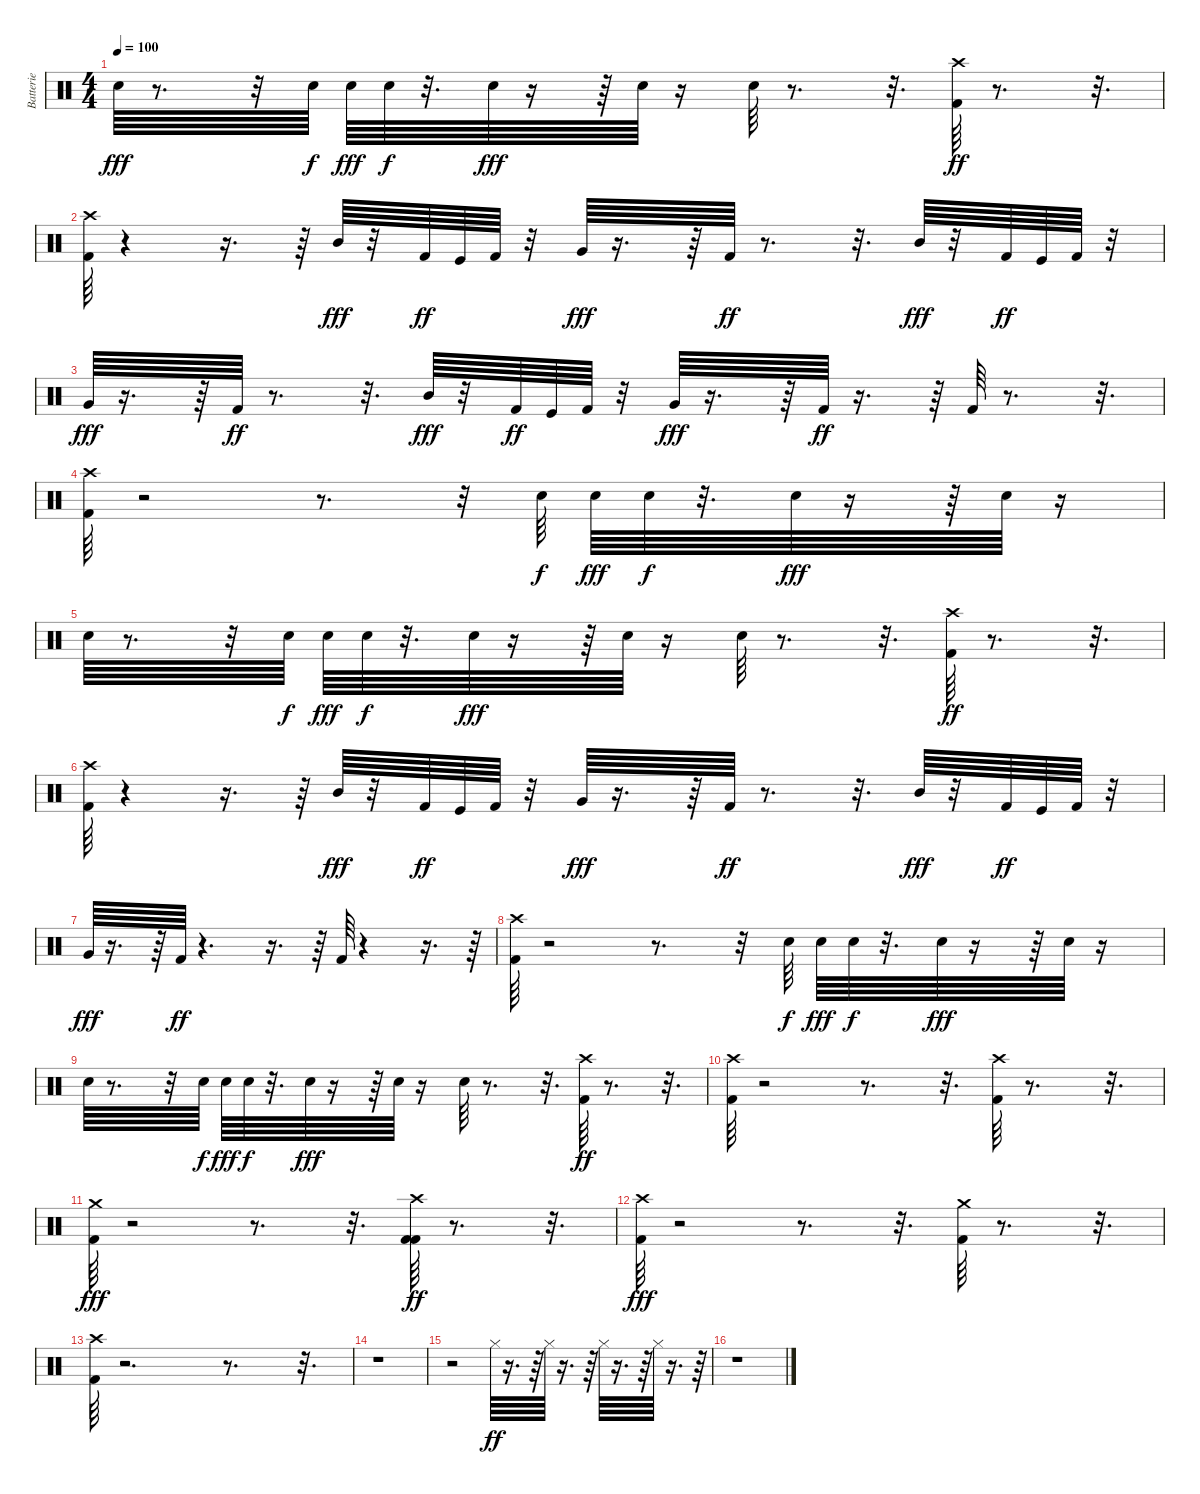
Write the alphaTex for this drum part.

\track ("Batterie" "Batterie") {instrument percussion}
\staff {score}
\articulation defaults
\ts (4 4)
\tempo 100
\clef neutral
\ks c "Snare (hit) 2".64{dy fff}
r.8{d} r.32 "Snare (hit) 2".64{dy f} "Snare (hit) 2".64{dy fff} "Snare (hit) 2".64{dy f} r.32{d} "Snare (hit) 2".64{dy fff} r.16 r.64 "Snare (hit) 2".64 r.16 "Snare (hit) 2".64 r.8{d} r.32{d} ("Crash high (hit)" "Kick (hit) 2").64{dy ff} r.8{d} r.32{d} |
("Crash high (hit)" "Kick (hit) 2").64 r.4 r.16{d} r.64 "Mid Tom (hit)".64{dy fff} r.32 "Kick (hit) 2".64{dy ff} "Kick (hit)".64 "Kick (hit) 2".64 r.32 "Very Low Tom (hit)".64{dy fff} r.16{d} r.64 "Kick (hit) 2".64{dy ff} r.8{d} r.32{d} "Mid Tom (hit)".64{dy fff} r.32 "Kick (hit) 2".64{dy ff} "Kick (hit)".64 "Kick (hit) 2".64 r.32 |
"Very Low Tom (hit)".64{dy fff} r.16{d} r.64 "Kick (hit) 2".64{dy ff} r.8{d} r.32{d} "Mid Tom (hit)".64{dy fff} r.32 "Kick (hit) 2".64{dy ff} "Kick (hit)".64 "Kick (hit) 2".64 r.32 "Very Low Tom (hit)".64{dy fff} r.16{d} r.64 "Kick (hit) 2".64{dy ff} r.16{d} r.64 "Kick (hit) 2".64 r.8{d} r.32{d} |
("Crash high (hit)" "Kick (hit) 2").64 r.2 r.8{d} r.32 "Snare (hit) 2".64{dy f} "Snare (hit) 2".64{dy fff} "Snare (hit) 2".64{dy f} r.32{d} "Snare (hit) 2".64{dy fff} r.16 r.64 "Snare (hit) 2".64 r.16 |
"Snare (hit) 2".64 r.8{d} r.32 "Snare (hit) 2".64{dy f} "Snare (hit) 2".64{dy fff} "Snare (hit) 2".64{dy f} r.32{d} "Snare (hit) 2".64{dy fff} r.16 r.64 "Snare (hit) 2".64 r.16 "Snare (hit) 2".64 r.8{d} r.32{d} ("Crash high (hit)" "Kick (hit) 2").64{dy ff} r.8{d} r.32{d} |
("Crash high (hit)" "Kick (hit) 2").64 r.4 r.16{d} r.64 "Mid Tom (hit)".64{dy fff} r.32 "Kick (hit) 2".64{dy ff} "Kick (hit)".64 "Kick (hit) 2".64 r.32 "Very Low Tom (hit)".64{dy fff} r.16{d} r.64 "Kick (hit) 2".64{dy ff} r.8{d} r.32{d} "Mid Tom (hit)".64{dy fff} r.32 "Kick (hit) 2".64{dy ff} "Kick (hit)".64 "Kick (hit) 2".64 r.32 |
"Very Low Tom (hit)".64{dy fff} r.16{d} r.64 "Kick (hit) 2".64{dy ff} r.4{d} r.16{d} r.64 "Kick (hit) 2".64 r.4 r.16{d} r.64 |
("Crash high (hit)" "Kick (hit) 2").64 r.2 r.8{d} r.32 "Snare (hit) 2".64{dy f} "Snare (hit) 2".64{dy fff} "Snare (hit) 2".64{dy f} r.32{d} "Snare (hit) 2".64{dy fff} r.16 r.64 "Snare (hit) 2".64 r.16 |
"Snare (hit) 2".64 r.8{d} r.32 "Snare (hit) 2".64{dy f} "Snare (hit) 2".64{dy fff} "Snare (hit) 2".64{dy f} r.32{d} "Snare (hit) 2".64{dy fff} r.16 r.64 "Snare (hit) 2".64 r.16 "Snare (hit) 2".64 r.8{d} r.32{d} ("Crash high (hit)" "Kick (hit) 2").64{dy ff} r.8{d} r.32{d} |
("Crash high (hit)" "Kick (hit) 2").64 r.2 r.8{d} r.32{d} ("Crash high (hit)" "Kick (hit) 2").64 r.8{d} r.32{d} |
("Kick (hit) 2" "Crash medium (hit)").64{dy fff} r.2 r.8{d} r.32{d} ("Kick (hit) 2" "Crash high (hit)" "Kick (hit) 2").64{dy ff} r.8{d} r.32{d} |
("Kick (hit) 2" "Crash high (hit)").64{dy fff} r.2 r.8{d} r.32{d} ("Kick (hit) 2" "Crash medium (hit)").64 r.8{d} r.32{d} |
("Kick (hit) 2" "Crash high (hit)").64 r.2{d} r.8{d} r.32{d} |
r.1 |
r.2 "Hi-Hat (closed)".64{dy ff} r.16{d} r.64 "Hi-Hat (closed)".64 r.16{d} r.64 "Hi-Hat (closed)".64 r.16{d} r.64 "Hi-Hat (closed)".64 r.16{d} r.64 |
r.1
